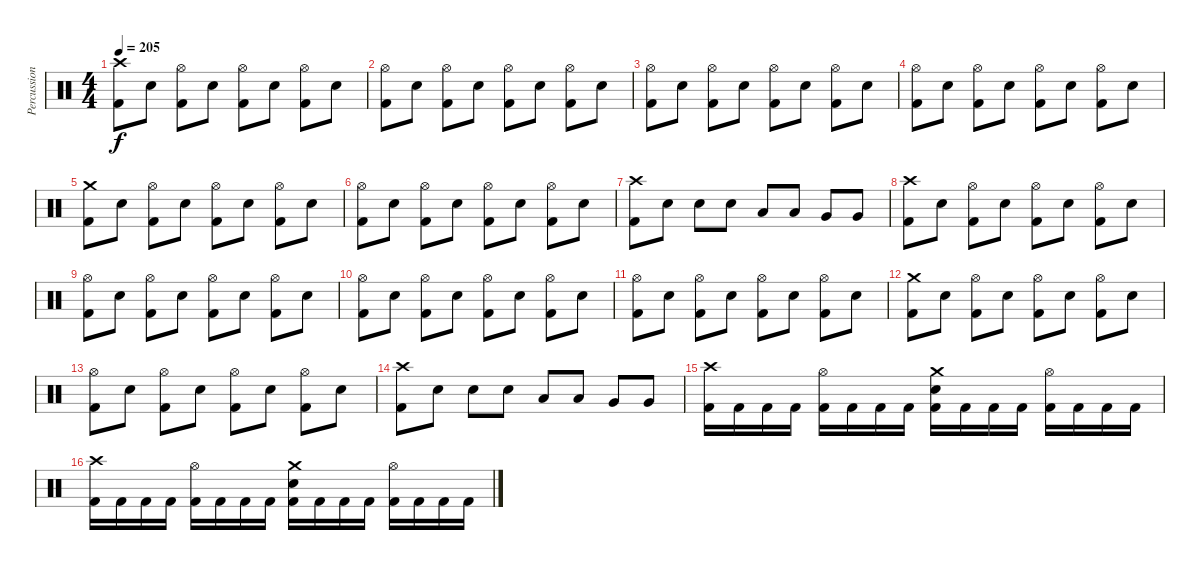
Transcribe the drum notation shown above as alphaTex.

\track ("Percussion" "Percussion") {instrument percussion}
\staff {score}
\articulation defaults
\ts (4 4)
\tempo 205
\clef neutral
\ks c
("Crash high (hit)" "Kick (hit) 2").8{dy f} "Electric Snare (hit)".8 ("Hi-Hat (open)" "Kick (hit) 2").8 "Electric Snare (hit)".8 ("Hi-Hat (open)" "Kick (hit) 2").8 "Electric Snare (hit)".8 ("Hi-Hat (open)" "Kick (hit) 2").8 "Electric Snare (hit)".8 |
("Hi-Hat (open)" "Kick (hit) 2").8 "Electric Snare (hit)".8 ("Hi-Hat (open)" "Kick (hit) 2").8 "Electric Snare (hit)".8 ("Hi-Hat (open)" "Kick (hit) 2").8 "Electric Snare (hit)".8 ("Hi-Hat (open)" "Kick (hit) 2").8 "Electric Snare (hit)".8 |
("Hi-Hat (open)" "Kick (hit) 2").8 "Electric Snare (hit)".8 ("Hi-Hat (open)" "Kick (hit) 2").8 "Electric Snare (hit)".8 ("Hi-Hat (open)" "Kick (hit) 2").8 "Electric Snare (hit)".8 ("Hi-Hat (open)" "Kick (hit) 2").8 "Electric Snare (hit)".8 |
("Hi-Hat (open)" "Kick (hit) 2").8 "Electric Snare (hit)".8 ("Hi-Hat (open)" "Kick (hit) 2").8 "Electric Snare (hit)".8 ("Hi-Hat (open)" "Kick (hit) 2").8 "Electric Snare (hit)".8 ("Hi-Hat (open)" "Kick (hit) 2").8 "Electric Snare (hit)".8 |
("Crash medium (hit)" "Kick (hit) 2").8 "Electric Snare (hit)".8 ("Hi-Hat (open)" "Kick (hit) 2").8 "Electric Snare (hit)".8 ("Hi-Hat (open)" "Kick (hit) 2").8 "Electric Snare (hit)".8 ("Hi-Hat (open)" "Kick (hit) 2").8 "Electric Snare (hit)".8 |
("Hi-Hat (open)" "Kick (hit) 2").8 "Electric Snare (hit)".8 ("Hi-Hat (open)" "Kick (hit) 2").8 "Electric Snare (hit)".8 ("Hi-Hat (open)" "Kick (hit) 2").8 "Electric Snare (hit)".8 ("Hi-Hat (open)" "Kick (hit) 2").8 "Electric Snare (hit)".8 |
("Crash high (hit)" "Kick (hit) 2").8 "Electric Snare (hit)".8 "Electric Snare (hit)".8 "Electric Snare (hit)".8 "Low Tom (hit)".8 "Low Tom (hit)".8 "Very Low Tom (hit)".8 "Very Low Tom (hit)".8 |
("Crash high (hit)" "Kick (hit) 2").8 "Electric Snare (hit)".8 ("Hi-Hat (open)" "Kick (hit) 2").8 "Electric Snare (hit)".8 ("Hi-Hat (open)" "Kick (hit) 2").8 "Electric Snare (hit)".8 ("Hi-Hat (open)" "Kick (hit) 2").8 "Electric Snare (hit)".8 |
("Hi-Hat (open)" "Kick (hit) 2").8 "Electric Snare (hit)".8 ("Hi-Hat (open)" "Kick (hit) 2").8 "Electric Snare (hit)".8 ("Hi-Hat (open)" "Kick (hit) 2").8 "Electric Snare (hit)".8 ("Hi-Hat (open)" "Kick (hit) 2").8 "Electric Snare (hit)".8 |
("Hi-Hat (open)" "Kick (hit) 2").8 "Electric Snare (hit)".8 ("Hi-Hat (open)" "Kick (hit) 2").8 "Electric Snare (hit)".8 ("Hi-Hat (open)" "Kick (hit) 2").8 "Electric Snare (hit)".8 ("Hi-Hat (open)" "Kick (hit) 2").8 "Electric Snare (hit)".8 |
("Hi-Hat (open)" "Kick (hit) 2").8 "Electric Snare (hit)".8 ("Hi-Hat (open)" "Kick (hit) 2").8 "Electric Snare (hit)".8 ("Hi-Hat (open)" "Kick (hit) 2").8 "Electric Snare (hit)".8 ("Hi-Hat (open)" "Kick (hit) 2").8 "Electric Snare (hit)".8 |
("Crash medium (hit)" "Kick (hit) 2").8 "Electric Snare (hit)".8 ("Hi-Hat (open)" "Kick (hit) 2").8 "Electric Snare (hit)".8 ("Hi-Hat (open)" "Kick (hit) 2").8 "Electric Snare (hit)".8 ("Hi-Hat (open)" "Kick (hit) 2").8 "Electric Snare (hit)".8 |
("Hi-Hat (open)" "Kick (hit) 2").8 "Electric Snare (hit)".8 ("Hi-Hat (open)" "Kick (hit) 2").8 "Electric Snare (hit)".8 ("Hi-Hat (open)" "Kick (hit) 2").8 "Electric Snare (hit)".8 ("Hi-Hat (open)" "Kick (hit) 2").8 "Electric Snare (hit)".8 |
("Crash high (hit)" "Kick (hit) 2").8 "Electric Snare (hit)".8 "Electric Snare (hit)".8 "Electric Snare (hit)".8 "Low Tom (hit)".8 "Low Tom (hit)".8 "Very Low Tom (hit)".8 "Very Low Tom (hit)".8 |
("Crash high (hit)" "Kick (hit) 2").16 "Kick (hit) 2".16 "Kick (hit) 2".16 "Kick (hit) 2".16 ("Hi-Hat (open)" "Kick (hit) 2").16 "Kick (hit) 2".16 "Kick (hit) 2".16 "Kick (hit) 2".16 ("Crash medium (hit)" "Electric Snare (hit)" "Kick (hit) 2").16 "Kick (hit) 2".16 "Kick (hit) 2".16 "Kick (hit) 2".16 ("Hi-Hat (open)" "Kick (hit) 2").16 "Kick (hit) 2".16 "Kick (hit) 2".16 "Kick (hit) 2".16 |
("Crash high (hit)" "Kick (hit) 2").16 "Kick (hit) 2".16 "Kick (hit) 2".16 "Kick (hit) 2".16 ("Hi-Hat (open)" "Kick (hit) 2").16 "Kick (hit) 2".16 "Kick (hit) 2".16 "Kick (hit) 2".16 ("Crash medium (hit)" "Electric Snare (hit)" "Kick (hit) 2").16 "Kick (hit) 2".16 "Kick (hit) 2".16 "Kick (hit) 2".16 ("Hi-Hat (open)" "Kick (hit) 2").16 "Kick (hit) 2".16 "Kick (hit) 2".16 "Kick (hit) 2".16
